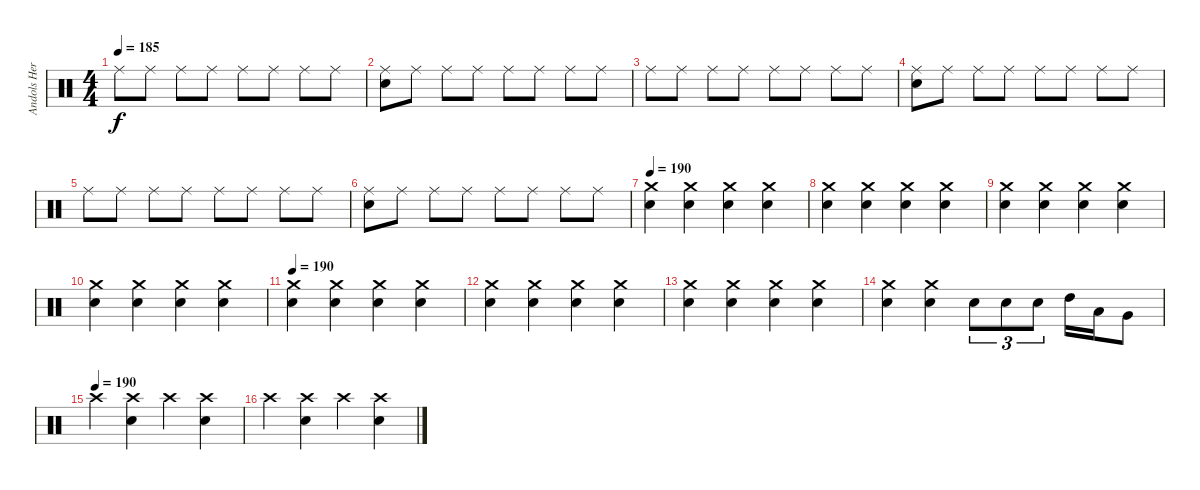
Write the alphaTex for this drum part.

\track ("Andols Herrick" "Andols Her") {instrument percussion}
\staff {score}
\articulation defaults
\ts (4 4)
\tempo 185
\clef neutral
\ks c "Ride (middle)".8{dy f} "Ride (middle)".8 "Ride (middle)".8 "Ride (middle)".8 "Ride (middle)".8 "Ride (middle)".8 "Ride (middle)".8 "Ride (middle)".8
|
("Ride (middle)" "Electric Snare (hit)").8 "Ride (middle)".8 "Ride (middle)".8 "Ride (middle)".8 "Ride (middle)".8 "Ride (middle)".8 "Ride (middle)".8 "Ride (middle)".8 |
"Ride (middle)".8 "Ride (middle)".8 "Ride (middle)".8 "Ride (middle)".8 "Ride (middle)".8 "Ride (middle)".8 "Ride (middle)".8 "Ride (middle)".8 |
("Ride (middle)" "Electric Snare (hit)").8 "Ride (middle)".8 "Ride (middle)".8 "Ride (middle)".8 "Ride (middle)".8 "Ride (middle)".8 "Ride (middle)".8 "Ride (middle)".8 |
"Ride (middle)".8 "Ride (middle)".8 "Ride (middle)".8 "Ride (middle)".8 "Ride (middle)".8 "Ride (middle)".8 "Ride (middle)".8 "Ride (middle)".8 |
("Ride (middle)" "Electric Snare (hit)").8 "Ride (middle)".8 "Ride (middle)".8 "Ride (middle)".8 "Ride (middle)".8 "Ride (middle)".8 "Ride (middle)".8 "Ride (middle)".8 |
\tempo 190
("Crash medium (hit)" "Electric Snare (hit)").4 ("Crash medium (hit)" "Electric Snare (hit)").4 ("Crash medium (hit)" "Electric Snare (hit)").4 ("Crash medium (hit)" "Electric Snare (hit)").4 |
("Crash medium (hit)" "Electric Snare (hit)").4 ("Crash medium (hit)" "Electric Snare (hit)").4 ("Crash medium (hit)" "Electric Snare (hit)").4 ("Crash medium (hit)" "Electric Snare (hit)").4 |
("Crash medium (hit)" "Electric Snare (hit)").4 ("Crash medium (hit)" "Electric Snare (hit)").4 ("Crash medium (hit)" "Electric Snare (hit)").4 ("Crash medium (hit)" "Electric Snare (hit)").4 |
("Crash medium (hit)" "Electric Snare (hit)").4 ("Crash medium (hit)" "Electric Snare (hit)").4 ("Crash medium (hit)" "Electric Snare (hit)").4 ("Crash medium (hit)" "Electric Snare (hit)").4 |
\tempo 190
("Crash medium (hit)" "Electric Snare (hit)").4 ("Crash medium (hit)" "Electric Snare (hit)").4 ("Crash medium (hit)" "Electric Snare (hit)").4 ("Crash medium (hit)" "Electric Snare (hit)").4 |
("Crash medium (hit)" "Electric Snare (hit)").4 ("Crash medium (hit)" "Electric Snare (hit)").4 ("Crash medium (hit)" "Electric Snare (hit)").4 ("Crash medium (hit)" "Electric Snare (hit)").4 |
("Crash medium (hit)" "Electric Snare (hit)").4 ("Crash medium (hit)" "Electric Snare (hit)").4 ("Crash medium (hit)" "Electric Snare (hit)").4 ("Crash medium (hit)" "Electric Snare (hit)").4 |
("Crash medium (hit)" "Electric Snare (hit)").4 ("Crash medium (hit)" "Electric Snare (hit)").4 "Electric Snare (hit)".8{tu (3 2)} "Electric Snare (hit)".8{tu (3 2)} "Electric Snare (hit)".8{tu (3 2)} "High Tom (hit)".16 "Low Tom (hit)".16 "Very Low Tom (hit)".8 |
\tempo (190)
"Crash high (hit)".4 ("Crash high (hit)" "Electric Snare (hit)").4 "Crash high (hit)".4 ("Crash high (hit)" "Electric Snare (hit)").4 |
"Crash high (hit)".4 ("Crash high (hit)" "Electric Snare (hit)").4 "Crash high (hit)".4 ("Crash high (hit)" "Electric Snare (hit)").4
